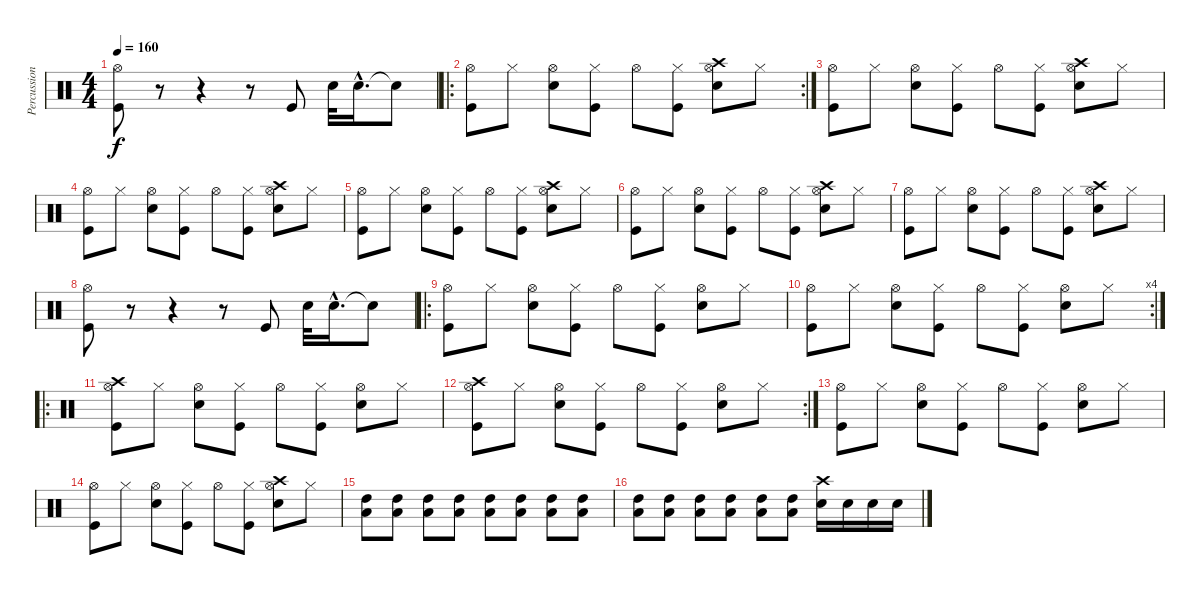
\track ("Percussions" "Percussion") {instrument percussion}
\staff {score}
\articulation defaults
\ts (4 4)
\tempo 160
\clef neutral
\ks c
("Hi-Hat (open)" "Kick (hit)").8{dy f} r.8 r.4 r.8 "Kick (hit)".8 "Snare (hit) 2".32 "Snare (hit) 2"{hac}.16{d} "Snare (hit)"{t}.8 |
\ro
\rc 2
("Hi-Hat (open)" "Kick (hit)").8 "Hi-Hat (closed)".8 ("Hi-Hat (open)" "Snare (hit) 2").8 ("Hi-Hat (closed)" "Kick (hit)").8 "Hi-Hat (open)".8 ("Hi-Hat (closed)" "Kick (hit)").8 ("Hi-Hat (open)" "Snare (hit) 2" "Crash high (hit)").8 "Hi-Hat (closed)".8 |
("Hi-Hat (open)" "Kick (hit)").8 "Hi-Hat (closed)".8 ("Hi-Hat (open)" "Snare (hit) 2").8 ("Hi-Hat (closed)" "Kick (hit)").8 "Hi-Hat (open)".8 ("Hi-Hat (closed)" "Kick (hit)").8 ("Hi-Hat (open)" "Snare (hit) 2" "Crash high (hit)").8 "Hi-Hat (closed)".8 |
("Hi-Hat (open)" "Kick (hit)").8 "Hi-Hat (closed)".8 ("Hi-Hat (open)" "Snare (hit) 2").8 ("Hi-Hat (closed)" "Kick (hit)").8 "Hi-Hat (open)".8 ("Hi-Hat (closed)" "Kick (hit)").8 ("Hi-Hat (open)" "Snare (hit) 2" "Crash high (hit)").8 "Hi-Hat (closed)".8 |
("Hi-Hat (open)" "Kick (hit)").8 "Hi-Hat (closed)".8 ("Hi-Hat (open)" "Snare (hit) 2").8 ("Hi-Hat (closed)" "Kick (hit)").8 "Hi-Hat (open)".8 ("Hi-Hat (closed)" "Kick (hit)").8 ("Hi-Hat (open)" "Snare (hit) 2" "Crash high (hit)").8 "Hi-Hat (closed)".8 |
("Hi-Hat (open)" "Kick (hit)").8 "Hi-Hat (closed)".8 ("Hi-Hat (open)" "Snare (hit) 2").8 ("Hi-Hat (closed)" "Kick (hit)").8 "Hi-Hat (open)".8 ("Hi-Hat (closed)" "Kick (hit)").8 ("Hi-Hat (open)" "Snare (hit) 2" "Crash high (hit)").8 "Hi-Hat (closed)".8 |
("Hi-Hat (open)" "Kick (hit)").8 "Hi-Hat (closed)".8 ("Hi-Hat (open)" "Snare (hit) 2").8 ("Hi-Hat (closed)" "Kick (hit)").8 "Hi-Hat (open)".8 ("Hi-Hat (closed)" "Kick (hit)").8 ("Hi-Hat (open)" "Snare (hit) 2" "Crash high (hit)").8 "Hi-Hat (closed)".8 |
("Hi-Hat (open)" "Kick (hit)").8 r.8 r.4 r.8 "Kick (hit)".8 "Snare (hit) 2".32 "Snare (hit) 2"{hac}.16{d} "Snare (hit)"{t}.8 |
\ro
("Hi-Hat (open)" "Kick (hit)").8 "Hi-Hat (closed)".8 ("Hi-Hat (open)" "Snare (hit) 2").8 ("Hi-Hat (closed)" "Kick (hit)").8 "Hi-Hat (open)".8 ("Hi-Hat (closed)" "Kick (hit)").8 ("Hi-Hat (open)" "Snare (hit) 2").8 "Hi-Hat (closed)".8 |
\rc 4
("Hi-Hat (open)" "Kick (hit)").8 "Hi-Hat (closed)".8 ("Hi-Hat (open)" "Snare (hit) 2").8 ("Hi-Hat (closed)" "Kick (hit)").8 "Hi-Hat (open)".8 ("Hi-Hat (closed)" "Kick (hit)").8 ("Hi-Hat (open)" "Snare (hit) 2").8 "Hi-Hat (closed)".8 |
\ro
("Hi-Hat (open)" "Kick (hit)" "Crash high (hit)").8 "Hi-Hat (closed)".8 ("Hi-Hat (open)" "Snare (hit) 2").8 ("Hi-Hat (closed)" "Kick (hit)").8 "Hi-Hat (open)".8 ("Hi-Hat (closed)" "Kick (hit)").8 ("Hi-Hat (open)" "Snare (hit) 2").8 "Hi-Hat (closed)".8 |
\rc 2
("Hi-Hat (open)" "Kick (hit)" "Crash high (hit)").8 "Hi-Hat (closed)".8 ("Hi-Hat (open)" "Snare (hit) 2").8 ("Hi-Hat (closed)" "Kick (hit)").8 "Hi-Hat (open)".8 ("Hi-Hat (closed)" "Kick (hit)").8 ("Hi-Hat (open)" "Snare (hit) 2").8 "Hi-Hat (closed)".8 |
("Hi-Hat (open)" "Kick (hit)").8 "Hi-Hat (closed)".8 ("Hi-Hat (open)" "Snare (hit) 2").8 ("Hi-Hat (closed)" "Kick (hit)").8 "Hi-Hat (open)".8 ("Hi-Hat (closed)" "Kick (hit)").8 ("Hi-Hat (open)" "Snare (hit) 2").8 "Hi-Hat (closed)".8 |
("Hi-Hat (open)" "Kick (hit)").8 "Hi-Hat (closed)".8 ("Hi-Hat (open)" "Snare (hit) 2").8 ("Hi-Hat (closed)" "Kick (hit)").8 "Hi-Hat (open)".8 ("Hi-Hat (closed)" "Kick (hit)").8 ("Hi-Hat (open)" "Snare (hit) 2" "Crash high (hit)").8 "Hi-Hat (closed)".8 |
("Low Floor Tom (hit)" "High Tom (hit)").8 ("Low Floor Tom (hit)" "High Tom (hit)").8 ("Low Floor Tom (hit)" "High Tom (hit)").8 ("Low Floor Tom (hit)" "High Tom (hit)").8 ("Low Floor Tom (hit)" "High Tom (hit)").8 ("Low Floor Tom (hit)" "High Tom (hit)").8 ("Low Floor Tom (hit)" "High Tom (hit)").8 ("Low Floor Tom (hit)" "High Tom (hit)").8 |
("Low Floor Tom (hit)" "High Tom (hit)").8 ("Low Floor Tom (hit)" "High Tom (hit)").8 ("Low Floor Tom (hit)" "High Tom (hit)").8 ("Low Floor Tom (hit)" "High Tom (hit)").8 ("Low Floor Tom (hit)" "High Tom (hit)").8 ("Low Floor Tom (hit)" "High Tom (hit)").8 ("Snare (hit) 2" "Crash high (hit)").16 "Snare (hit) 2".16 "Snare (hit) 2".16 "Snare (hit) 2".16
